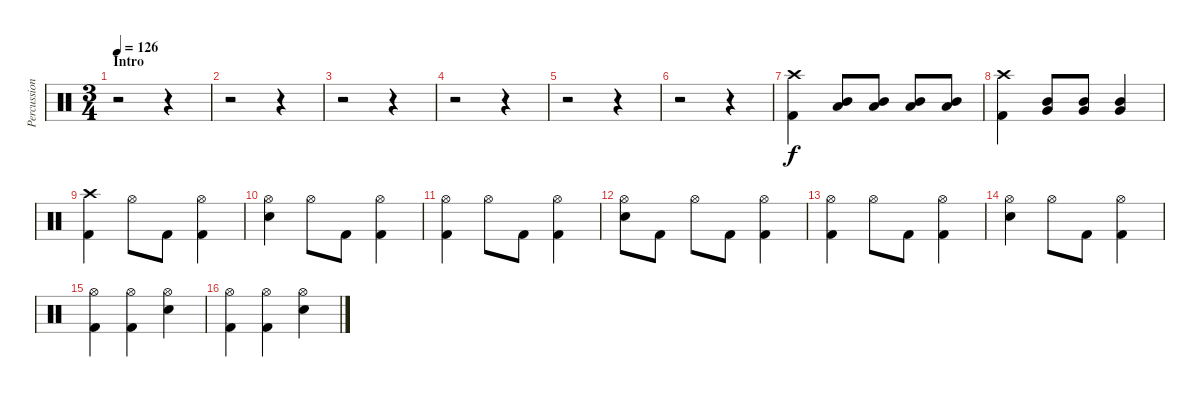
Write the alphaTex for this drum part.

\track ("Percussion" "Percussion") {instrument percussion}
\staff {score}
\articulation defaults
\ts (3 4)
\section ("" "Intro")
\tempo 126
\clef neutral
\ks c
r.2{dy f} r.4 |
r.2 r.4 |
r.2 r.4 |
r.2 r.4 |
r.2 r.4 |
r.2 r.4 |
("Crash high (hit)" "Kick (hit) 2").4 ("Low Tom (hit)" "Mid Tom (hit)").8 ("Low Tom (hit)" "Mid Tom (hit)").8 ("Low Tom (hit)" "Mid Tom (hit)").8 ("Low Tom (hit)" "Mid Tom (hit)").8 |
("Crash high (hit)" "Kick (hit) 2").4 ("Mid Tom (hit)" "Very Low Tom (hit)").8 ("Mid Tom (hit)" "Very Low Tom (hit)").8 ("Mid Tom (hit)" "Very Low Tom (hit)").4 |
("Crash high (hit)" "Kick (hit) 2").4 "Hi-Hat (open)".8 "Kick (hit) 2".8 ("Hi-Hat (open)" "Kick (hit) 2").4 |
("Hi-Hat (open)" "Snare (hit) 2").4 "Hi-Hat (open)".8 "Kick (hit) 2".8 ("Hi-Hat (open)" "Kick (hit) 2").4 |
("Hi-Hat (open)" "Kick (hit) 2").4 "Hi-Hat (open)".8 "Kick (hit) 2".8 ("Hi-Hat (open)" "Kick (hit) 2").4 |
("Hi-Hat (open)" "Snare (hit) 2").8 "Kick (hit) 2".8 "Hi-Hat (open)".8 "Kick (hit) 2".8 ("Hi-Hat (open)" "Kick (hit) 2").4 |
("Hi-Hat (open)" "Kick (hit) 2").4 "Hi-Hat (open)".8 "Kick (hit) 2".8 ("Hi-Hat (open)" "Kick (hit) 2").4 |
("Hi-Hat (open)" "Snare (hit) 2").4 "Hi-Hat (open)".8 "Kick (hit) 2".8 ("Hi-Hat (open)" "Kick (hit) 2").4 |
("Hi-Hat (open)" "Kick (hit) 2").4 ("Hi-Hat (open)" "Kick (hit) 2").4 ("Hi-Hat (open)" "Snare (hit) 2").4 |
("Hi-Hat (open)" "Kick (hit) 2").4 ("Hi-Hat (open)" "Kick (hit) 2").4 ("Hi-Hat (open)" "Snare (hit) 2").4
